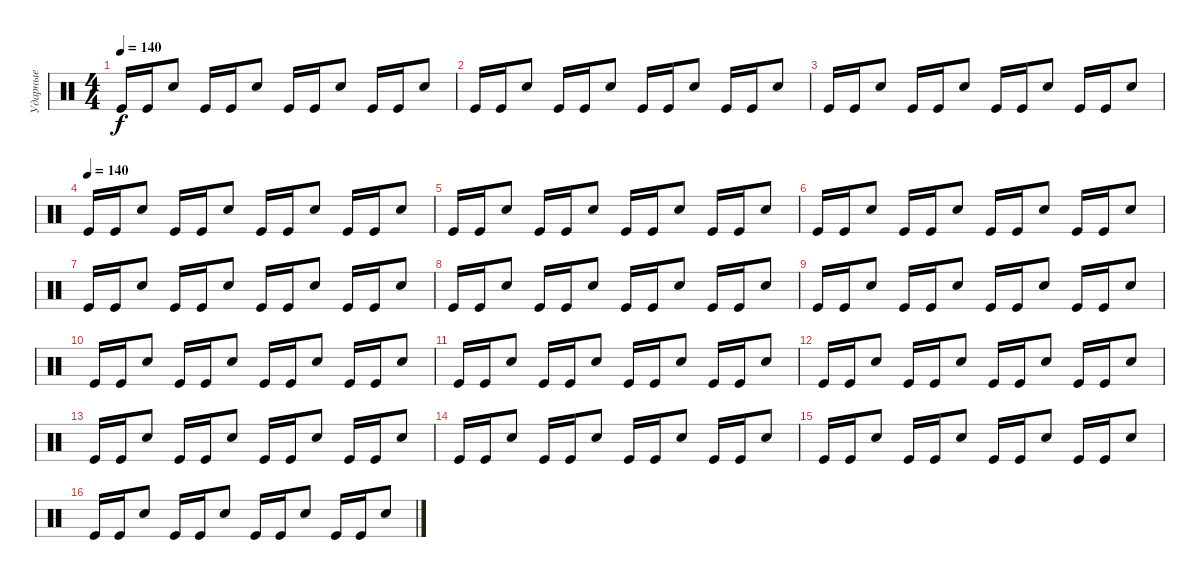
\track ("Ударные" "Ударные") {instrument percussion}
\staff {score}
\articulation defaults
\ts (4 4)
\tempo 140
\clef neutral
\ks c "Kick (hit)".16{dy f} "Kick (hit)".16 "Electric Snare (hit)".8 "Kick (hit)".16 "Kick (hit)".16 "Electric Snare (hit)".8 "Kick (hit)".16 "Kick (hit)".16 "Electric Snare (hit)".8 "Kick (hit)".16 "Kick (hit)".16 "Electric Snare (hit)".8
|
"Kick (hit)".16 "Kick (hit)".16 "Electric Snare (hit)".8 "Kick (hit)".16 "Kick (hit)".16 "Electric Snare (hit)".8 "Kick (hit)".16 "Kick (hit)".16 "Electric Snare (hit)".8 "Kick (hit)".16 "Kick (hit)".16 "Electric Snare (hit)".8 |
"Kick (hit)".16 "Kick (hit)".16 "Electric Snare (hit)".8 "Kick (hit)".16 "Kick (hit)".16 "Electric Snare (hit)".8 "Kick (hit)".16 "Kick (hit)".16 "Electric Snare (hit)".8 "Kick (hit)".16 "Kick (hit)".16 "Electric Snare (hit)".8 |
\tempo (140)
"Kick (hit)".16 "Kick (hit)".16 "Electric Snare (hit)".8 "Kick (hit)".16 "Kick (hit)".16 "Electric Snare (hit)".8 "Kick (hit)".16 "Kick (hit)".16 "Electric Snare (hit)".8 "Kick (hit)".16 "Kick (hit)".16 "Electric Snare (hit)".8 |
"Kick (hit)".16 "Kick (hit)".16 "Electric Snare (hit)".8 "Kick (hit)".16 "Kick (hit)".16 "Electric Snare (hit)".8 "Kick (hit)".16 "Kick (hit)".16 "Electric Snare (hit)".8 "Kick (hit)".16 "Kick (hit)".16 "Electric Snare (hit)".8 |
"Kick (hit)".16 "Kick (hit)".16 "Electric Snare (hit)".8 "Kick (hit)".16 "Kick (hit)".16 "Electric Snare (hit)".8 "Kick (hit)".16 "Kick (hit)".16 "Electric Snare (hit)".8 "Kick (hit)".16 "Kick (hit)".16 "Electric Snare (hit)".8 |
"Kick (hit)".16 "Kick (hit)".16 "Electric Snare (hit)".8 "Kick (hit)".16 "Kick (hit)".16 "Electric Snare (hit)".8 "Kick (hit)".16 "Kick (hit)".16 "Electric Snare (hit)".8 "Kick (hit)".16 "Kick (hit)".16 "Electric Snare (hit)".8 |
"Kick (hit)".16 "Kick (hit)".16 "Electric Snare (hit)".8 "Kick (hit)".16 "Kick (hit)".16 "Electric Snare (hit)".8 "Kick (hit)".16 "Kick (hit)".16 "Electric Snare (hit)".8 "Kick (hit)".16 "Kick (hit)".16 "Electric Snare (hit)".8 |
"Kick (hit)".16 "Kick (hit)".16 "Electric Snare (hit)".8 "Kick (hit)".16 "Kick (hit)".16 "Electric Snare (hit)".8 "Kick (hit)".16 "Kick (hit)".16 "Electric Snare (hit)".8 "Kick (hit)".16 "Kick (hit)".16 "Electric Snare (hit)".8 |
"Kick (hit)".16 "Kick (hit)".16 "Electric Snare (hit)".8 "Kick (hit)".16 "Kick (hit)".16 "Electric Snare (hit)".8 "Kick (hit)".16 "Kick (hit)".16 "Electric Snare (hit)".8 "Kick (hit)".16 "Kick (hit)".16 "Electric Snare (hit)".8 |
"Kick (hit)".16 "Kick (hit)".16 "Electric Snare (hit)".8 "Kick (hit)".16 "Kick (hit)".16 "Electric Snare (hit)".8 "Kick (hit)".16 "Kick (hit)".16 "Electric Snare (hit)".8 "Kick (hit)".16 "Kick (hit)".16 "Electric Snare (hit)".8 |
"Kick (hit)".16 "Kick (hit)".16 "Electric Snare (hit)".8 "Kick (hit)".16 "Kick (hit)".16 "Electric Snare (hit)".8 "Kick (hit)".16 "Kick (hit)".16 "Electric Snare (hit)".8 "Kick (hit)".16 "Kick (hit)".16 "Electric Snare (hit)".8 |
"Kick (hit)".16 "Kick (hit)".16 "Electric Snare (hit)".8 "Kick (hit)".16 "Kick (hit)".16 "Electric Snare (hit)".8 "Kick (hit)".16 "Kick (hit)".16 "Electric Snare (hit)".8 "Kick (hit)".16 "Kick (hit)".16 "Electric Snare (hit)".8 |
"Kick (hit)".16 "Kick (hit)".16 "Electric Snare (hit)".8 "Kick (hit)".16 "Kick (hit)".16 "Electric Snare (hit)".8 "Kick (hit)".16 "Kick (hit)".16 "Electric Snare (hit)".8 "Kick (hit)".16 "Kick (hit)".16 "Electric Snare (hit)".8 |
"Kick (hit)".16 "Kick (hit)".16 "Electric Snare (hit)".8 "Kick (hit)".16 "Kick (hit)".16 "Electric Snare (hit)".8 "Kick (hit)".16 "Kick (hit)".16 "Electric Snare (hit)".8 "Kick (hit)".16 "Kick (hit)".16 "Electric Snare (hit)".8 |
"Kick (hit)".16 "Kick (hit)".16 "Electric Snare (hit)".8 "Kick (hit)".16 "Kick (hit)".16 "Electric Snare (hit)".8 "Kick (hit)".16 "Kick (hit)".16 "Electric Snare (hit)".8 "Kick (hit)".16 "Kick (hit)".16 "Electric Snare (hit)".8
